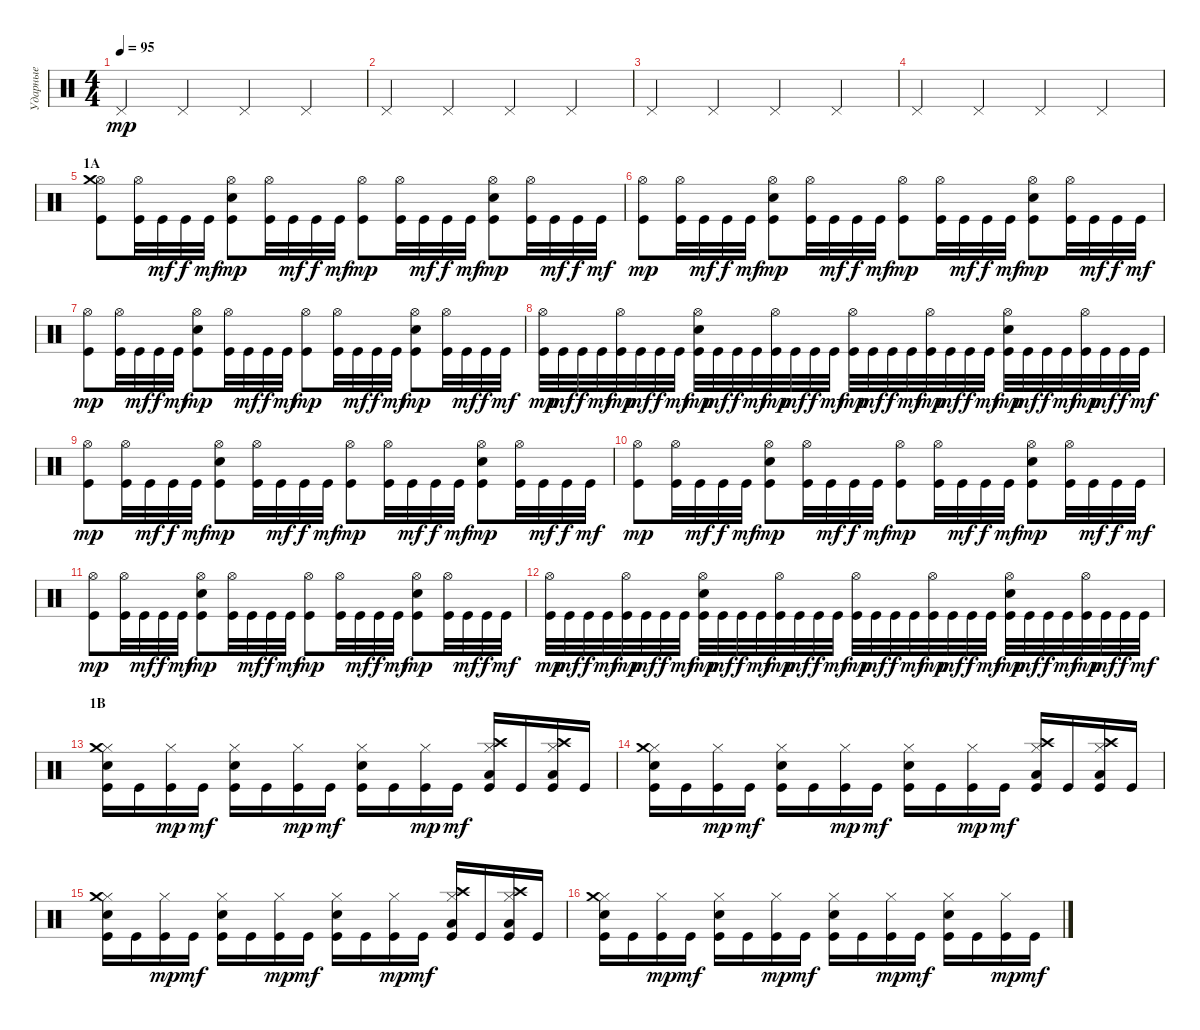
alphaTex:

\track ("Ударные" "Ударные") {instrument percussion}
\staff {score}
\articulation defaults
\ts (4 4)
\tempo 95
\clef neutral
\ks c "Pedal Hi-Hat (hit)".4{dy mp} "Pedal Hi-Hat (hit)".4 "Pedal Hi-Hat (hit)".4 "Pedal Hi-Hat (hit)".4
|
"Pedal Hi-Hat (hit)".4 "Pedal Hi-Hat (hit)".4 "Pedal Hi-Hat (hit)".4 "Pedal Hi-Hat (hit)".4 |
"Pedal Hi-Hat (hit)".4 "Pedal Hi-Hat (hit)".4 "Pedal Hi-Hat (hit)".4 "Pedal Hi-Hat (hit)".4 |
"Pedal Hi-Hat (hit)".4 "Pedal Hi-Hat (hit)".4 "Pedal Hi-Hat (hit)".4 "Pedal Hi-Hat (hit)".4 |
\section ("" "1A")
("Hi-Hat (open)" "Crash medium (hit)" "Kick (hit)").8 ("Hi-Hat (open)" "Kick (hit)").32 "Kick (hit)".32{dy mf} "Kick (hit)".32{dy f} "Kick (hit)".32{dy mf} ("Hi-Hat (open)" "Snare (hit) 2" "Kick (hit)").8{dy mp} ("Hi-Hat (open)" "Kick (hit)").32 "Kick (hit)".32{dy mf} "Kick (hit)".32{dy f} "Kick (hit)".32{dy mf} ("Hi-Hat (open)" "Kick (hit)").8{dy mp} ("Hi-Hat (open)" "Kick (hit)").32 "Kick (hit)".32{dy mf} "Kick (hit)".32{dy f} "Kick (hit)".32{dy mf} ("Hi-Hat (open)" "Snare (hit) 2" "Kick (hit)").8{dy mp} ("Hi-Hat (open)" "Kick (hit)").32 "Kick (hit)".32{dy mf} "Kick (hit)".32{dy f} "Kick (hit)".32{dy mf} |
("Hi-Hat (open)" "Kick (hit)").8{dy mp} ("Hi-Hat (open)" "Kick (hit)").32 "Kick (hit)".32{dy mf} "Kick (hit)".32{dy f} "Kick (hit)".32{dy mf} ("Hi-Hat (open)" "Snare (hit) 2" "Kick (hit)").8{dy mp} ("Hi-Hat (open)" "Kick (hit)").32 "Kick (hit)".32{dy mf} "Kick (hit)".32{dy f} "Kick (hit)".32{dy mf} ("Hi-Hat (open)" "Kick (hit)").8{dy mp} ("Hi-Hat (open)" "Kick (hit)").32 "Kick (hit)".32{dy mf} "Kick (hit)".32{dy f} "Kick (hit)".32{dy mf} ("Hi-Hat (open)" "Snare (hit) 2" "Kick (hit)").8{dy mp} ("Hi-Hat (open)" "Kick (hit)").32 "Kick (hit)".32{dy mf} "Kick (hit)".32{dy f} "Kick (hit)".32{dy mf} |
("Hi-Hat (open)" "Kick (hit)").8{dy mp} ("Hi-Hat (open)" "Kick (hit)").32 "Kick (hit)".32{dy mf} "Kick (hit)".32{dy f} "Kick (hit)".32{dy mf} ("Hi-Hat (open)" "Snare (hit) 2" "Kick (hit)").8{dy mp} ("Hi-Hat (open)" "Kick (hit)").32 "Kick (hit)".32{dy mf} "Kick (hit)".32{dy f} "Kick (hit)".32{dy mf} ("Hi-Hat (open)" "Kick (hit)").8{dy mp} ("Hi-Hat (open)" "Kick (hit)").32 "Kick (hit)".32{dy mf} "Kick (hit)".32{dy f} "Kick (hit)".32{dy mf} ("Hi-Hat (open)" "Snare (hit) 2" "Kick (hit)").8{dy mp} ("Hi-Hat (open)" "Kick (hit)").32 "Kick (hit)".32{dy mf} "Kick (hit)".32{dy f} "Kick (hit)".32{dy mf} |
("Hi-Hat (open)" "Kick (hit)").32{dy mp} "Kick (hit)".32{dy mf} "Kick (hit)".32{dy f} "Kick (hit)".32{dy mf} ("Hi-Hat (open)" "Kick (hit)").32{dy mp} "Kick (hit)".32{dy mf} "Kick (hit)".32{dy f} "Kick (hit)".32{dy mf} ("Hi-Hat (open)" "Snare (hit) 2" "Kick (hit)").32{dy mp} "Kick (hit)".32{dy mf} "Kick (hit)".32{dy f} "Kick (hit)".32{dy mf} ("Hi-Hat (open)" "Kick (hit)").32{dy mp} "Kick (hit)".32{dy mf} "Kick (hit)".32{dy f} "Kick (hit)".32{dy mf} ("Hi-Hat (open)" "Kick (hit)").32{dy mp} "Kick (hit)".32{dy mf} "Kick (hit)".32{dy f} "Kick (hit)".32{dy mf} ("Hi-Hat (open)" "Kick (hit)").32{dy mp} "Kick (hit)".32{dy mf} "Kick (hit)".32{dy f} "Kick (hit)".32{dy mf} ("Hi-Hat (open)" "Snare (hit) 2" "Kick (hit)").32{dy mp} "Kick (hit)".32{dy mf} "Kick (hit)".32{dy f} "Kick (hit)".32{dy mf} ("Hi-Hat (open)" "Kick (hit)").32{dy mp} "Kick (hit)".32{dy mf} "Kick (hit)".32{dy f} "Kick (hit)".32{dy mf} |
("Hi-Hat (open)" "Kick (hit)").8{dy mp} ("Hi-Hat (open)" "Kick (hit)").32 "Kick (hit)".32{dy mf} "Kick (hit)".32{dy f} "Kick (hit)".32{dy mf} ("Hi-Hat (open)" "Snare (hit) 2" "Kick (hit)").8{dy mp} ("Hi-Hat (open)" "Kick (hit)").32 "Kick (hit)".32{dy mf} "Kick (hit)".32{dy f} "Kick (hit)".32{dy mf} ("Hi-Hat (open)" "Kick (hit)").8{dy mp} ("Hi-Hat (open)" "Kick (hit)").32 "Kick (hit)".32{dy mf} "Kick (hit)".32{dy f} "Kick (hit)".32{dy mf} ("Hi-Hat (open)" "Snare (hit) 2" "Kick (hit)").8{dy mp} ("Hi-Hat (open)" "Kick (hit)").32 "Kick (hit)".32{dy mf} "Kick (hit)".32{dy f} "Kick (hit)".32{dy mf} |
("Hi-Hat (open)" "Kick (hit)").8{dy mp} ("Hi-Hat (open)" "Kick (hit)").32 "Kick (hit)".32{dy mf} "Kick (hit)".32{dy f} "Kick (hit)".32{dy mf} ("Hi-Hat (open)" "Snare (hit) 2" "Kick (hit)").8{dy mp} ("Hi-Hat (open)" "Kick (hit)").32 "Kick (hit)".32{dy mf} "Kick (hit)".32{dy f} "Kick (hit)".32{dy mf} ("Hi-Hat (open)" "Kick (hit)").8{dy mp} ("Hi-Hat (open)" "Kick (hit)").32 "Kick (hit)".32{dy mf} "Kick (hit)".32{dy f} "Kick (hit)".32{dy mf} ("Hi-Hat (open)" "Snare (hit) 2" "Kick (hit)").8{dy mp} ("Hi-Hat (open)" "Kick (hit)").32 "Kick (hit)".32{dy mf} "Kick (hit)".32{dy f} "Kick (hit)".32{dy mf} |
("Hi-Hat (open)" "Kick (hit)").8{dy mp} ("Hi-Hat (open)" "Kick (hit)").32 "Kick (hit)".32{dy mf} "Kick (hit)".32{dy f} "Kick (hit)".32{dy mf} ("Hi-Hat (open)" "Snare (hit) 2" "Kick (hit)").8{dy mp} ("Hi-Hat (open)" "Kick (hit)").32 "Kick (hit)".32{dy mf} "Kick (hit)".32{dy f} "Kick (hit)".32{dy mf} ("Hi-Hat (open)" "Kick (hit)").8{dy mp} ("Hi-Hat (open)" "Kick (hit)").32 "Kick (hit)".32{dy mf} "Kick (hit)".32{dy f} "Kick (hit)".32{dy mf} ("Hi-Hat (open)" "Snare (hit) 2" "Kick (hit)").8{dy mp} ("Hi-Hat (open)" "Kick (hit)").32 "Kick (hit)".32{dy mf} "Kick (hit)".32{dy f} "Kick (hit)".32{dy mf} |
("Hi-Hat (open)" "Kick (hit)").32{dy mp} "Kick (hit)".32{dy mf} "Kick (hit)".32{dy f} "Kick (hit)".32{dy mf} ("Hi-Hat (open)" "Kick (hit)").32{dy mp} "Kick (hit)".32{dy mf} "Kick (hit)".32{dy f} "Kick (hit)".32{dy mf} ("Hi-Hat (open)" "Snare (hit) 2" "Kick (hit)").32{dy mp} "Kick (hit)".32{dy mf} "Kick (hit)".32{dy f} "Kick (hit)".32{dy mf} ("Hi-Hat (open)" "Kick (hit)").32{dy mp} "Kick (hit)".32{dy mf} "Kick (hit)".32{dy f} "Kick (hit)".32{dy mf} ("Hi-Hat (open)" "Kick (hit)").32{dy mp} "Kick (hit)".32{dy mf} "Kick (hit)".32{dy f} "Kick (hit)".32{dy mf} ("Hi-Hat (open)" "Kick (hit)").32{dy mp} "Kick (hit)".32{dy mf} "Kick (hit)".32{dy f} "Kick (hit)".32{dy mf} ("Hi-Hat (open)" "Snare (hit) 2" "Kick (hit)").32{dy mp} "Kick (hit)".32{dy mf} "Kick (hit)".32{dy f} "Kick (hit)".32{dy mf} ("Hi-Hat (open)" "Kick (hit)").32{dy mp} "Kick (hit)".32{dy mf} "Kick (hit)".32{dy f} "Kick (hit)".32{dy mf} |
\section ("" "1B")
("Hi-Hat (closed)" "Crash medium (hit)" "Snare (hit) 2" "Kick (hit)").16 "Kick (hit)".16 ("Hi-Hat (closed)" "Kick (hit)").16{dy mp} "Kick (hit)".16{dy mf} ("Hi-Hat (closed)" "Snare (hit) 2" "Kick (hit)").16 "Kick (hit)".16 ("Hi-Hat (closed)" "Kick (hit)").16{dy mp} "Kick (hit)".16{dy mf} ("Hi-Hat (closed)" "Snare (hit) 2" "Kick (hit)").16 "Kick (hit)".16 ("Hi-Hat (closed)" "Kick (hit)").16{dy mp} "Kick (hit)".16{dy mf} ("Hi-Hat (closed)" "Crash high (hit)" "Low Floor Tom (hit)" "Kick (hit)").16 "Kick (hit)".16 ("Hi-Hat (closed)" "Crash high (hit)" "Low Floor Tom (hit)" "Kick (hit)").16 "Kick (hit)".16 |
("Hi-Hat (closed)" "Crash medium (hit)" "Snare (hit) 2" "Kick (hit)").16 "Kick (hit)".16 ("Hi-Hat (closed)" "Kick (hit)").16{dy mp} "Kick (hit)".16{dy mf} ("Hi-Hat (closed)" "Snare (hit) 2" "Kick (hit)").16 "Kick (hit)".16 ("Hi-Hat (closed)" "Kick (hit)").16{dy mp} "Kick (hit)".16{dy mf} ("Hi-Hat (closed)" "Snare (hit) 2" "Kick (hit)").16 "Kick (hit)".16 ("Hi-Hat (closed)" "Kick (hit)").16{dy mp} "Kick (hit)".16{dy mf} ("Hi-Hat (closed)" "Crash high (hit)" "Low Floor Tom (hit)" "Kick (hit)").16 "Kick (hit)".16 ("Hi-Hat (closed)" "Crash high (hit)" "Low Floor Tom (hit)" "Kick (hit)").16 "Kick (hit)".16 |
("Hi-Hat (closed)" "Crash medium (hit)" "Snare (hit) 2" "Kick (hit)").16 "Kick (hit)".16 ("Hi-Hat (closed)" "Kick (hit)").16{dy mp} "Kick (hit)".16{dy mf} ("Hi-Hat (closed)" "Snare (hit) 2" "Kick (hit)").16 "Kick (hit)".16 ("Hi-Hat (closed)" "Kick (hit)").16{dy mp} "Kick (hit)".16{dy mf} ("Hi-Hat (closed)" "Snare (hit) 2" "Kick (hit)").16 "Kick (hit)".16 ("Hi-Hat (closed)" "Kick (hit)").16{dy mp} "Kick (hit)".16{dy mf} ("Hi-Hat (closed)" "Crash high (hit)" "Low Floor Tom (hit)" "Kick (hit)").16 "Kick (hit)".16 ("Hi-Hat (closed)" "Crash high (hit)" "Low Floor Tom (hit)" "Kick (hit)").16 "Kick (hit)".16 |
("Hi-Hat (closed)" "Crash medium (hit)" "Snare (hit) 2" "Kick (hit)").16 "Kick (hit)".16 ("Hi-Hat (closed)" "Kick (hit)").16{dy mp} "Kick (hit)".16{dy mf} ("Hi-Hat (closed)" "Snare (hit) 2" "Kick (hit)").16 "Kick (hit)".16 ("Hi-Hat (closed)" "Kick (hit)").16{dy mp} "Kick (hit)".16{dy mf} ("Hi-Hat (closed)" "Snare (hit) 2" "Kick (hit)").16 "Kick (hit)".16 ("Hi-Hat (closed)" "Kick (hit)").16{dy mp} "Kick (hit)".16{dy mf} ("Hi-Hat (closed)" "Snare (hit) 2" "Kick (hit)").16 "Kick (hit)".16 ("Hi-Hat (closed)" "Kick (hit)").16{dy mp} "Kick (hit)".16{dy mf}
